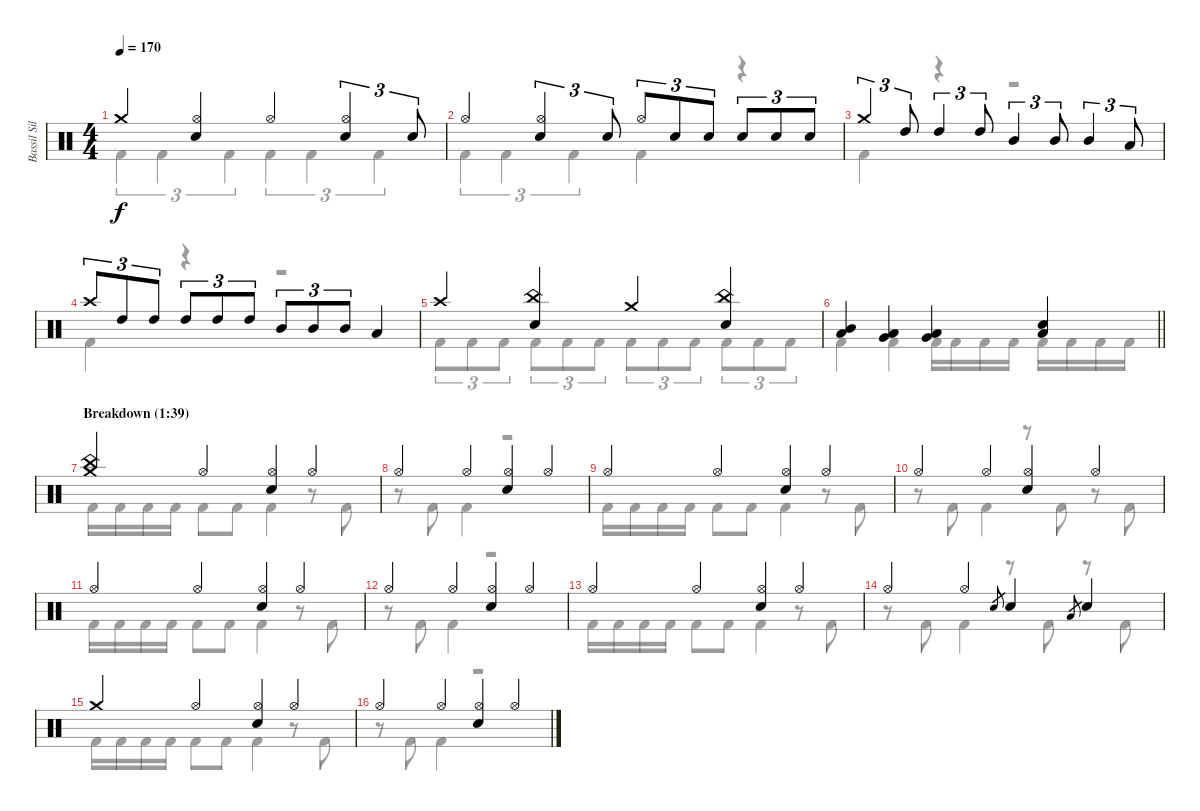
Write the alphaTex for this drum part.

\track ("Bassil Silver-Hajo" "Bassil Sil") {instrument percussion}
\staff {score}
\articulation defaults
\voice
\ts (4 4)
\tempo 170
\clef neutral
\ks c "Crash medium (hit)".4{dy f}
("Hi-Hat (open)" "Snare (hit) 2").4 "Hi-Hat (open)".4 ("Hi-Hat (open)" "Snare (hit) 2").4{tu (3 2)} "Snare (hit) 2".8{tu (3 2)} |
"Hi-Hat (open)".4 ("Hi-Hat (open)" "Snare (hit) 2").4{tu (3 2)} "Snare (hit) 2".8{tu (3 2)} "Hi-Hat (open)".8{tu (3 2)} "Snare (hit) 2".8{tu (3 2)} "Snare (hit) 2".8{tu (3 2)} "Snare (hit) 2".8{tu (3 2)} "Snare (hit) 2".8{tu (3 2)} "Snare (hit) 2".8{tu (3 2)} |
"Crash medium (hit)".4{tu (3 2)} "High Tom (hit)".8{tu (3 2)} "High Tom (hit)".4{tu (3 2)} "High Tom (hit)".8{tu (3 2)} "Mid Tom (hit)".4{tu (3 2)} "Mid Tom (hit)".8{tu (3 2)} "Mid Tom (hit)".4{tu (3 2)} "Low Tom (hit)".8{tu (3 2)} |
"Crash high (hit)".8{tu (3 2)} "High Tom (hit)".8{tu (3 2)} "High Tom (hit)".8{tu (3 2)} "High Tom (hit)".8{tu (3 2)} "High Tom (hit)".8{tu (3 2)} "High Tom (hit)".8{tu (3 2)} "Mid Tom (hit)".8{tu (3 2)} "Mid Tom (hit)".8{tu (3 2)} "Mid Tom (hit)".8{tu (3 2)} "Low Tom (hit)".4 |
"Crash high (hit)".4 ("China (hit)" "Snare (hit) 2").4 "Crash medium (hit)".4 ("China (hit)" "Snare (hit) 2").4 |
\barLineRight lightlight
("Mid Tom (hit)" "Low Tom (hit)").4 ("Low Tom (hit)" "Very Low Tom (hit)").4 ("Very Low Tom (hit)" "Low Floor Tom (hit)").4 ("Low Floor Tom (hit)" "Snare (hit) 2").4 |
\section ("" "Breakdown (1:39)")
("Crash medium (hit)" "China (hit)").4 "Hi-Hat (open)".4 ("Hi-Hat (open)" "Snare (hit) 2").4 "Hi-Hat (open)".4 |
"Hi-Hat (open)".4 "Hi-Hat (open)".4 ("Hi-Hat (open)" "Snare (hit) 2").4 "Hi-Hat (open)".4 |
"Hi-Hat (open)".4 "Hi-Hat (open)".4 ("Hi-Hat (open)" "Snare (hit) 2").4 "Hi-Hat (open)".4 |
"Hi-Hat (open)".4 "Hi-Hat (open)".4 ("Hi-Hat (open)" "Snare (hit) 2").4 "Hi-Hat (open)".4 |
"Hi-Hat (open)".4 "Hi-Hat (open)".4 ("Hi-Hat (open)" "Snare (hit) 2").4 "Hi-Hat (open)".4 |
"Hi-Hat (open)".4 "Hi-Hat (open)".4 ("Hi-Hat (open)" "Snare (hit) 2").4 "Hi-Hat (open)".4 |
"Hi-Hat (open)".4 "Hi-Hat (open)".4 ("Hi-Hat (open)" "Snare (hit) 2").4 "Hi-Hat (open)".4 |
"Hi-Hat (open)".4 "Hi-Hat (open)".4 "Snare (hit) 2".8{gr} "Snare (hit) 2".4 "Low Floor Tom (hit)".8{gr} "Snare (hit) 2".4 |
"Crash medium (hit)".4 "Hi-Hat (open)".4 ("Hi-Hat (open)" "Snare (hit) 2").4 "Hi-Hat (open)".4 |
"Hi-Hat (open)".4 "Hi-Hat (open)".4 ("Hi-Hat (open)" "Snare (hit) 2").4 "Hi-Hat (open)".4
\voice
\clef neutral
\ottava regular
\simile none
\ks c "Kick (hit) 2".4{tu (3 2) dy f} "Kick (hit) 2".4{tu (3 2)} "Kick (hit) 2".4{tu (3 2)} "Kick (hit) 2".4{tu (3 2)} "Kick (hit) 2".4{tu (3 2)} "Kick (hit) 2".4{tu (3 2)}
|
"Kick (hit) 2".4{tu (3 2)} "Kick (hit) 2".4{tu (3 2)} "Kick (hit) 2".4{tu (3 2)} "Kick (hit) 2".4 r.4 |
"Kick (hit) 2".4 r.4 r.2 |
"Kick (hit) 2".4 r.4 r.2 |
"Kick (hit) 2".8{tu (3 2)} "Kick (hit) 2".8{tu (3 2)} "Kick (hit) 2".8{tu (3 2)} "Kick (hit) 2".8{tu (3 2)} "Kick (hit) 2".8{tu (3 2)} "Kick (hit) 2".8{tu (3 2)} "Kick (hit) 2".8{tu (3 2)} "Kick (hit) 2".8{tu (3 2)} "Kick (hit) 2".8{tu (3 2)} "Kick (hit) 2".8{tu (3 2)} "Kick (hit) 2".8{tu (3 2)} "Kick (hit) 2".8{tu (3 2)} |
\barLineRight lightlight "Kick (hit) 2".4 "Kick (hit) 2".4 "Kick (hit) 2".16 "Kick (hit) 2".16 "Kick (hit) 2".16 "Kick (hit) 2".16 "Kick (hit) 2".16 "Kick (hit) 2".16 "Kick (hit) 2".16 "Kick (hit) 2".16
|
"Kick (hit) 2".16 "Kick (hit) 2".16 "Kick (hit) 2".16 "Kick (hit) 2".16 "Kick (hit) 2".8 "Kick (hit) 2".8 "Kick (hit) 2".4 r.8 "Kick (hit) 2".8 |
r.8 "Kick (hit) 2".8 "Kick (hit) 2".4 r.2 |
"Kick (hit) 2".16 "Kick (hit) 2".16 "Kick (hit) 2".16 "Kick (hit) 2".16 "Kick (hit) 2".8 "Kick (hit) 2".8 "Kick (hit) 2".4 r.8 "Kick (hit) 2".8 |
r.8 "Kick (hit) 2".8 "Kick (hit) 2".4 r.8 "Kick (hit) 2".8 r.8 "Kick (hit) 2".8 |
"Kick (hit) 2".16 "Kick (hit) 2".16 "Kick (hit) 2".16 "Kick (hit) 2".16 "Kick (hit) 2".8 "Kick (hit) 2".8 "Kick (hit) 2".4 r.8 "Kick (hit) 2".8 |
r.8 "Kick (hit) 2".8 "Kick (hit) 2".4 r.2 |
"Kick (hit) 2".16 "Kick (hit) 2".16 "Kick (hit) 2".16 "Kick (hit) 2".16 "Kick (hit) 2".8 "Kick (hit) 2".8 "Kick (hit) 2".4 r.8 "Kick (hit) 2".8 |
r.8 "Kick (hit) 2".8 "Kick (hit) 2".4 r.8 "Kick (hit) 2".8 r.8 "Kick (hit) 2".8 |
"Kick (hit) 2".16 "Kick (hit) 2".16 "Kick (hit) 2".16 "Kick (hit) 2".16 "Kick (hit) 2".8 "Kick (hit) 2".8 "Kick (hit) 2".4 r.8 "Kick (hit) 2".8 |
r.8 "Kick (hit) 2".8 "Kick (hit) 2".4 r.2
